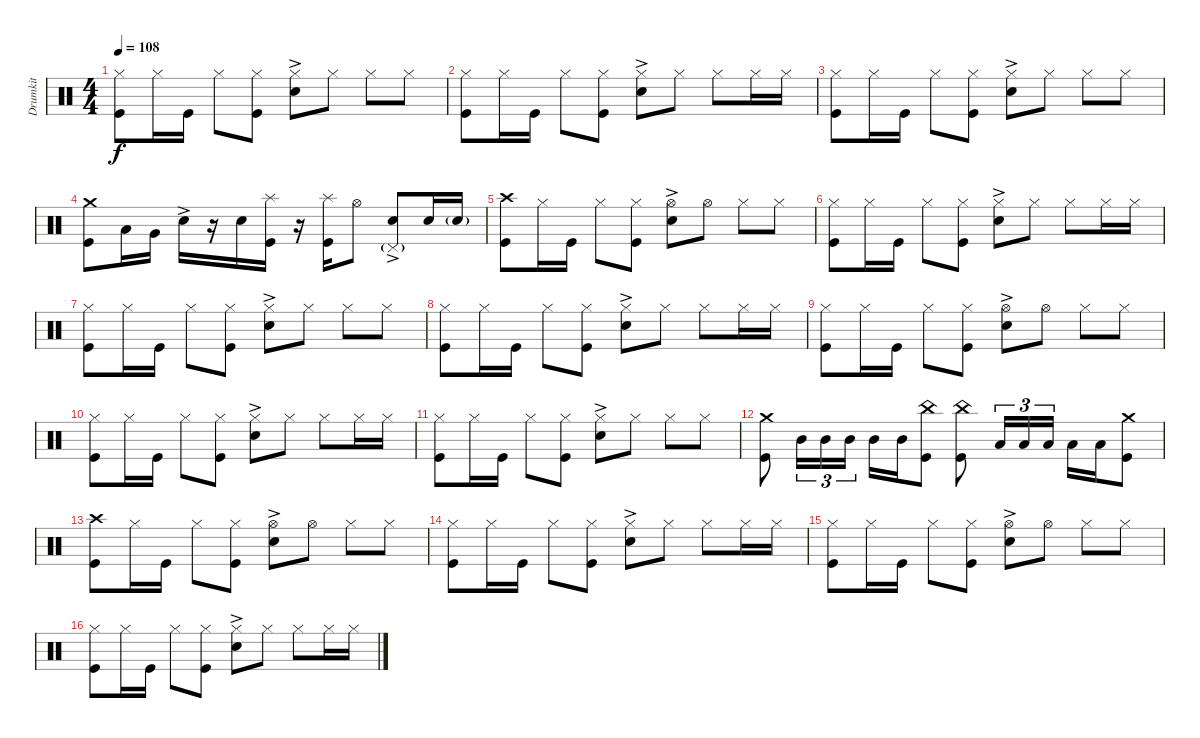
\track ("Drumkit" "Drumkit") {instrument percussion}
\staff {score}
\articulation defaults
\ts (4 4)
\tempo 108
\clef neutral
\ks c
("Kick (hit)" "Hi-Hat (closed)").8{dy f} "Hi-Hat (closed)".16 "Kick (hit)".16 "Hi-Hat (closed)".8 ("Kick (hit)" "Hi-Hat (closed)").8 ("Hi-Hat (closed)" "Snare (hit) 2"{ac}).8 "Hi-Hat (closed)".8 "Hi-Hat (closed)".8 "Hi-Hat (closed)".8 |
("Hi-Hat (closed)" "Kick (hit)").8 "Hi-Hat (closed)".16 "Kick (hit)".16 "Hi-Hat (closed)".8 ("Kick (hit)" "Hi-Hat (closed)").8 ("Hi-Hat (closed)" "Snare (hit) 2"{ac}).8 "Hi-Hat (closed)".8 "Hi-Hat (closed)".8 "Hi-Hat (closed)".16 "Hi-Hat (closed)".16 |
("Kick (hit)" "Hi-Hat (closed)").8 "Hi-Hat (closed)".16 "Kick (hit)".16 "Hi-Hat (closed)".8 ("Kick (hit)" "Hi-Hat (closed)").8 ("Hi-Hat (closed)" "Snare (hit) 2"{ac}).8 "Hi-Hat (closed)".8 "Hi-Hat (closed)".8 "Hi-Hat (closed)".8 |
("Kick (hit)" "Crash medium (hit)").8 "Low Tom (hit)".16 "Very Low Tom (hit)".16 "Snare (hit) 2"{ac}.16 r.16 "Snare (hit) 2".16 ("Splash (hit)" "Kick (hit)").16 r.16 ("Splash (hit)" "Kick (hit)").16 "Hi-Hat (open)".8 ("Snare (hit) 2"{ac} "Pedal Hi-Hat (hit)"{g}).8 "Snare (hit) 2".16 "Snare (hit) 2"{g}.16 |
("Kick (hit)" "Crash high (hit)").8 "Hi-Hat (closed)".16 "Kick (hit)".16 "Hi-Hat (closed)".8 ("Kick (hit)" "Hi-Hat (closed)").8 ("Snare (hit) 2"{ac} "Hi-Hat (open)").8 "Hi-Hat (open)".8 "Hi-Hat (closed)".8 "Hi-Hat (closed)".8 |
("Hi-Hat (closed)" "Kick (hit)").8 "Hi-Hat (closed)".16 "Kick (hit)".16 "Hi-Hat (closed)".8 ("Kick (hit)" "Hi-Hat (closed)").8 ("Hi-Hat (closed)" "Snare (hit) 2"{ac}).8 "Hi-Hat (closed)".8 "Hi-Hat (closed)".8 "Hi-Hat (closed)".16 "Hi-Hat (closed)".16 |
("Kick (hit)" "Hi-Hat (closed)").8 "Hi-Hat (closed)".16 "Kick (hit)".16 "Hi-Hat (closed)".8 ("Kick (hit)" "Hi-Hat (closed)").8 ("Hi-Hat (closed)" "Snare (hit) 2"{ac}).8 "Hi-Hat (closed)".8 "Hi-Hat (closed)".8 "Hi-Hat (closed)".8 |
("Hi-Hat (closed)" "Kick (hit)").8 "Hi-Hat (closed)".16 "Kick (hit)".16 "Hi-Hat (closed)".8 ("Kick (hit)" "Hi-Hat (closed)").8 ("Hi-Hat (closed)" "Snare (hit) 2"{ac}).8 "Hi-Hat (closed)".8 "Hi-Hat (closed)".8 "Hi-Hat (closed)".16 "Hi-Hat (closed)".16 |
("Kick (hit)" "Hi-Hat (closed)").8 "Hi-Hat (closed)".16 "Kick (hit)".16 "Hi-Hat (closed)".8 ("Kick (hit)" "Hi-Hat (closed)").8 ("Snare (hit) 2"{ac} "Hi-Hat (open)").8 "Hi-Hat (open)".8 "Hi-Hat (closed)".8 "Hi-Hat (closed)".8 |
("Hi-Hat (closed)" "Kick (hit)").8 "Hi-Hat (closed)".16 "Kick (hit)".16 "Hi-Hat (closed)".8 ("Kick (hit)" "Hi-Hat (closed)").8 ("Hi-Hat (closed)" "Snare (hit) 2"{ac}).8 "Hi-Hat (closed)".8 "Hi-Hat (closed)".8 "Hi-Hat (closed)".16 "Hi-Hat (closed)".16 |
("Kick (hit)" "Hi-Hat (closed)").8 "Hi-Hat (closed)".16 "Kick (hit)".16 "Hi-Hat (closed)".8 ("Kick (hit)" "Hi-Hat (closed)").8 ("Hi-Hat (closed)" "Snare (hit) 2"{ac}).8 "Hi-Hat (closed)".8 "Hi-Hat (closed)".8 "Hi-Hat (closed)".8 |
("Kick (hit)" "Crash medium (hit)").8 "Mid Tom (hit)".16{tu (3 2)} "Mid Tom (hit)".16{tu (3 2)} "Mid Tom (hit)".16{tu (3 2)} "Mid Tom (hit)".16 "Mid Tom (hit)".16 ("Kick (hit)" "China (hit)").8 ("Kick (hit)" "China (hit)").8 "Low Tom (hit)".16{tu (3 2)} "Low Tom (hit)".16{tu (3 2)} "Low Tom (hit)".16{tu (3 2)} "Low Tom (hit)".16 "Low Tom (hit)".16 ("Kick (hit)" "Crash medium (hit)").8 |
("Kick (hit)" "Crash high (hit)").8 "Hi-Hat (closed)".16 "Kick (hit)".16 "Hi-Hat (closed)".8 ("Kick (hit)" "Hi-Hat (closed)").8 ("Snare (hit) 2"{ac} "Hi-Hat (open)").8 "Hi-Hat (open)".8 "Hi-Hat (closed)".8 "Hi-Hat (closed)".8 |
("Hi-Hat (closed)" "Kick (hit)").8 "Hi-Hat (closed)".16 "Kick (hit)".16 "Hi-Hat (closed)".8 ("Kick (hit)" "Hi-Hat (closed)").8 ("Hi-Hat (closed)" "Snare (hit) 2"{ac}).8 "Hi-Hat (closed)".8 "Hi-Hat (closed)".8 "Hi-Hat (closed)".16 "Hi-Hat (closed)".16 |
("Kick (hit)" "Hi-Hat (closed)").8 "Hi-Hat (closed)".16 "Kick (hit)".16 "Hi-Hat (closed)".8 ("Kick (hit)" "Hi-Hat (closed)").8 ("Hi-Hat (open)" "Snare (hit) 2"{ac}).8 "Hi-Hat (open)".8 "Hi-Hat (closed)".8 "Hi-Hat (closed)".8 |
("Hi-Hat (closed)" "Kick (hit)").8 "Hi-Hat (closed)".16 "Kick (hit)".16 "Hi-Hat (closed)".8 ("Kick (hit)" "Hi-Hat (closed)").8 ("Hi-Hat (closed)" "Snare (hit) 2"{ac}).8 "Hi-Hat (closed)".8 "Hi-Hat (closed)".8 "Hi-Hat (closed)".16 "Hi-Hat (closed)".16
